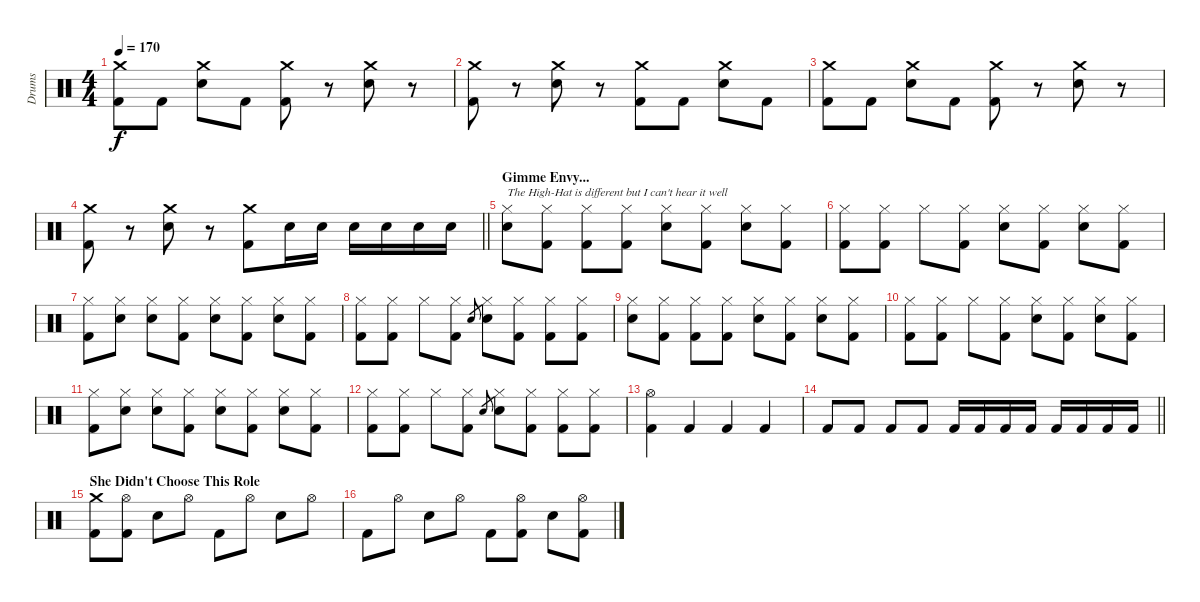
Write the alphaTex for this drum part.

\track ("Drums" "Drums") {instrument percussion}
\staff {score}
\articulation defaults
\ts (4 4)
\tempo 170
\clef neutral
\ks c
("Crash medium (hit)" "Kick (hit) 2").8{dy f} "Kick (hit) 2".8 ("Crash medium (hit)" "Electric Snare (hit)").8 "Kick (hit) 2".8 ("Crash medium (hit)" "Kick (hit) 2").8 r.8 ("Crash medium (hit)" "Electric Snare (hit)").8 r.8 |
("Crash medium (hit)" "Kick (hit) 2").8 r.8 ("Crash medium (hit)" "Electric Snare (hit)").8 r.8 ("Crash medium (hit)" "Kick (hit) 2").8 "Kick (hit) 2".8 ("Crash medium (hit)" "Electric Snare (hit)").8 "Kick (hit) 2".8 |
("Crash medium (hit)" "Kick (hit) 2").8 "Kick (hit) 2".8 ("Crash medium (hit)" "Electric Snare (hit)").8 "Kick (hit) 2".8 ("Crash medium (hit)" "Kick (hit) 2").8 r.8 ("Crash medium (hit)" "Electric Snare (hit)").8 r.8 |
\barLineRight lightlight
("Crash medium (hit)" "Kick (hit) 2").8 r.8 ("Crash medium (hit)" "Electric Snare (hit)").8 r.8 ("Crash medium (hit)" "Kick (hit) 2").8 "Electric Snare (hit)".16 "Electric Snare (hit)".16 "Electric Snare (hit)".16 "Electric Snare (hit)".16 "Electric Snare (hit)".16 "Electric Snare (hit)".16 |
\section ("" "Gimme Envy...")
("Hi-Hat (closed)" "Electric Snare (hit)").8{txt "The High-Hat is different but I can't hear it well"} ("Hi-Hat (closed)" "Kick (hit) 2").8 ("Hi-Hat (closed)" "Kick (hit) 2").8 ("Hi-Hat (closed)" "Kick (hit) 2").8 ("Hi-Hat (closed)" "Electric Snare (hit)").8 ("Hi-Hat (closed)" "Kick (hit) 2").8 ("Hi-Hat (closed)" "Electric Snare (hit)").8 ("Hi-Hat (closed)" "Kick (hit) 2").8 |
("Hi-Hat (closed)" "Kick (hit) 2").8 ("Hi-Hat (closed)" "Kick (hit) 2").8 "Hi-Hat (closed)".8 ("Hi-Hat (closed)" "Kick (hit) 2").8 ("Hi-Hat (closed)" "Electric Snare (hit)").8 ("Hi-Hat (closed)" "Kick (hit) 2").8 ("Hi-Hat (closed)" "Electric Snare (hit)").8 ("Hi-Hat (closed)" "Kick (hit) 2").8 |
("Hi-Hat (closed)" "Kick (hit) 2").8 ("Hi-Hat (closed)" "Electric Snare (hit)").8 ("Hi-Hat (closed)" "Electric Snare (hit)").8 ("Hi-Hat (closed)" "Kick (hit) 2").8 ("Hi-Hat (closed)" "Electric Snare (hit)").8 ("Hi-Hat (closed)" "Kick (hit) 2").8 ("Hi-Hat (closed)" "Electric Snare (hit)").8 ("Hi-Hat (closed)" "Kick (hit) 2").8 |
("Hi-Hat (closed)" "Kick (hit) 2").8 ("Hi-Hat (closed)" "Kick (hit) 2").8 "Hi-Hat (closed)".8 ("Hi-Hat (closed)" "Kick (hit) 2").8 "Electric Snare (hit)".8{gr} ("Hi-Hat (closed)" "Electric Snare (hit)").8 ("Hi-Hat (closed)" "Kick (hit) 2").8 ("Hi-Hat (closed)" "Kick (hit) 2").8 ("Hi-Hat (closed)" "Kick (hit) 2").8 |
("Hi-Hat (closed)" "Electric Snare (hit)").8 ("Hi-Hat (closed)" "Kick (hit) 2").8 ("Hi-Hat (closed)" "Kick (hit) 2").8 ("Hi-Hat (closed)" "Kick (hit) 2").8 ("Hi-Hat (closed)" "Electric Snare (hit)").8 ("Hi-Hat (closed)" "Kick (hit) 2").8 ("Hi-Hat (closed)" "Electric Snare (hit)").8 ("Hi-Hat (closed)" "Kick (hit) 2").8 |
("Hi-Hat (closed)" "Kick (hit) 2").8 ("Hi-Hat (closed)" "Kick (hit) 2").8 "Hi-Hat (closed)".8 ("Hi-Hat (closed)" "Kick (hit) 2").8 ("Hi-Hat (closed)" "Electric Snare (hit)").8 ("Hi-Hat (closed)" "Kick (hit) 2").8 ("Hi-Hat (closed)" "Electric Snare (hit)").8 ("Hi-Hat (closed)" "Kick (hit) 2").8 |
("Hi-Hat (closed)" "Kick (hit) 2").8 ("Hi-Hat (closed)" "Electric Snare (hit)").8 ("Hi-Hat (closed)" "Electric Snare (hit)").8 ("Hi-Hat (closed)" "Kick (hit) 2").8 ("Hi-Hat (closed)" "Electric Snare (hit)").8 ("Hi-Hat (closed)" "Kick (hit) 2").8 ("Hi-Hat (closed)" "Electric Snare (hit)").8 ("Hi-Hat (closed)" "Kick (hit) 2").8 |
("Hi-Hat (closed)" "Kick (hit) 2").8 ("Hi-Hat (closed)" "Kick (hit) 2").8 "Hi-Hat (closed)".8 ("Hi-Hat (closed)" "Kick (hit) 2").8 "Electric Snare (hit)".8{gr} ("Hi-Hat (closed)" "Electric Snare (hit)").8 ("Hi-Hat (closed)" "Kick (hit) 2").8 ("Hi-Hat (closed)" "Kick (hit) 2").8 ("Hi-Hat (closed)" "Kick (hit) 2").8 |
("Hi-Hat (open)" "Kick (hit) 2").4 "Kick (hit) 2".4 "Kick (hit) 2".4 "Kick (hit) 2".4 |
\barLineRight lightlight "Kick (hit) 2".8 "Kick (hit) 2".8 "Kick (hit) 2".8 "Kick (hit) 2".8 "Kick (hit) 2".16 "Kick (hit) 2".16 "Kick (hit) 2".16 "Kick (hit) 2".16 "Kick (hit) 2".16 "Kick (hit) 2".16 "Kick (hit) 2".16 "Kick (hit) 2".16
|
\section ("" "She Didn't Choose This Role")
("Crash medium (hit)" "Kick (hit) 2").8 ("Hi-Hat (open)" "Kick (hit) 2").8 "Electric Snare (hit)".8 "Hi-Hat (open)".8 "Kick (hit) 2".8 "Hi-Hat (open)".8 "Electric Snare (hit)".8 "Hi-Hat (open)".8 |
"Kick (hit) 2".8 "Hi-Hat (open)".8 "Electric Snare (hit)".8 "Hi-Hat (open)".8 "Kick (hit) 2".8 ("Hi-Hat (open)" "Kick (hit) 2").8 "Electric Snare (hit)".8 ("Hi-Hat (open)" "Kick (hit) 2").8
